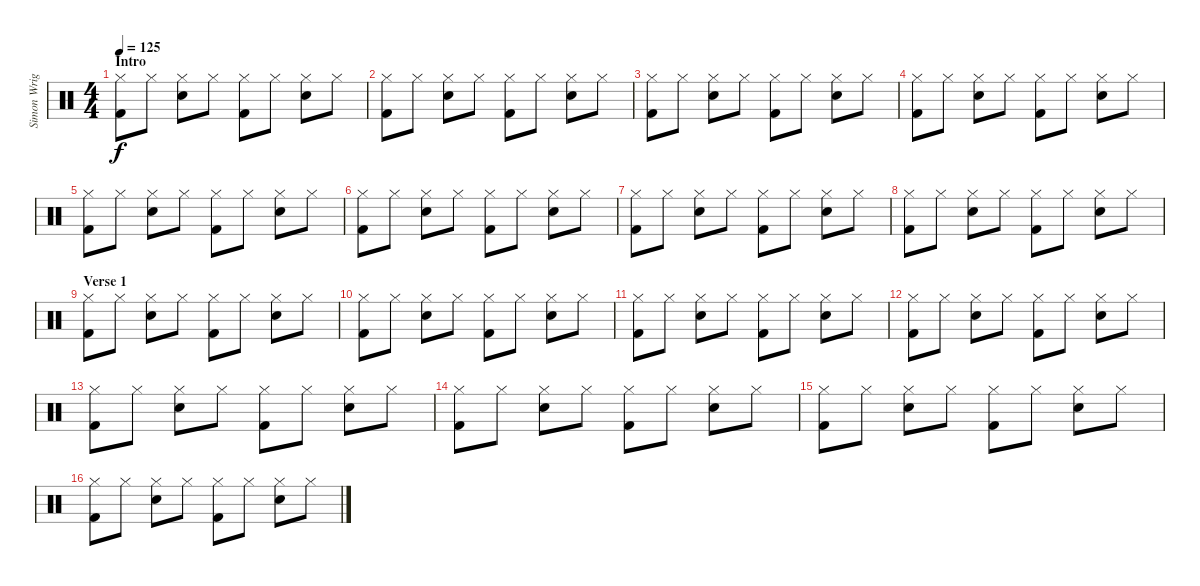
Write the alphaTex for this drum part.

\track ("Simon Wright" "Simon Wrig") {instrument percussion}
\staff {score}
\articulation defaults
\ts (4 4)
\section ("" "Intro")
\tempo 125
\clef neutral
\ks c
("Kick (hit) 2" "Hi-Hat (closed)").8{dy f} "Hi-Hat (closed)".8 ("Snare (hit) 2" "Hi-Hat (closed)").8 "Hi-Hat (closed)".8 ("Kick (hit) 2" "Hi-Hat (closed)").8 "Hi-Hat (closed)".8 ("Snare (hit) 2" "Hi-Hat (closed)").8 "Hi-Hat (closed)".8 |
("Kick (hit) 2" "Hi-Hat (closed)").8 "Hi-Hat (closed)".8 ("Snare (hit) 2" "Hi-Hat (closed)").8 "Hi-Hat (closed)".8 ("Kick (hit) 2" "Hi-Hat (closed)").8 "Hi-Hat (closed)".8 ("Snare (hit) 2" "Hi-Hat (closed)").8 "Hi-Hat (closed)".8 |
("Kick (hit) 2" "Hi-Hat (closed)").8 "Hi-Hat (closed)".8 ("Snare (hit) 2" "Hi-Hat (closed)").8 "Hi-Hat (closed)".8 ("Kick (hit) 2" "Hi-Hat (closed)").8 "Hi-Hat (closed)".8 ("Snare (hit) 2" "Hi-Hat (closed)").8 "Hi-Hat (closed)".8 |
("Kick (hit) 2" "Hi-Hat (closed)").8 "Hi-Hat (closed)".8 ("Snare (hit) 2" "Hi-Hat (closed)").8 "Hi-Hat (closed)".8 ("Kick (hit) 2" "Hi-Hat (closed)").8 "Hi-Hat (closed)".8 ("Snare (hit) 2" "Hi-Hat (closed)").8 "Hi-Hat (closed)".8 |
("Kick (hit) 2" "Hi-Hat (closed)").8 "Hi-Hat (closed)".8 ("Snare (hit) 2" "Hi-Hat (closed)").8 "Hi-Hat (closed)".8 ("Kick (hit) 2" "Hi-Hat (closed)").8 "Hi-Hat (closed)".8 ("Snare (hit) 2" "Hi-Hat (closed)").8 "Hi-Hat (closed)".8 |
("Kick (hit) 2" "Hi-Hat (closed)").8 "Hi-Hat (closed)".8 ("Snare (hit) 2" "Hi-Hat (closed)").8 "Hi-Hat (closed)".8 ("Kick (hit) 2" "Hi-Hat (closed)").8 "Hi-Hat (closed)".8 ("Snare (hit) 2" "Hi-Hat (closed)").8 "Hi-Hat (closed)".8 |
("Kick (hit) 2" "Hi-Hat (closed)").8 "Hi-Hat (closed)".8 ("Snare (hit) 2" "Hi-Hat (closed)").8 "Hi-Hat (closed)".8 ("Kick (hit) 2" "Hi-Hat (closed)").8 "Hi-Hat (closed)".8 ("Snare (hit) 2" "Hi-Hat (closed)").8 "Hi-Hat (closed)".8 |
("Kick (hit) 2" "Hi-Hat (closed)").8 "Hi-Hat (closed)".8 ("Snare (hit) 2" "Hi-Hat (closed)").8 "Hi-Hat (closed)".8 ("Kick (hit) 2" "Hi-Hat (closed)").8 "Hi-Hat (closed)".8 ("Snare (hit) 2" "Hi-Hat (closed)").8 "Hi-Hat (closed)".8 |
\section ("" "Verse 1")
("Kick (hit) 2" "Hi-Hat (closed)").8 "Hi-Hat (closed)".8 ("Snare (hit) 2" "Hi-Hat (closed)").8 "Hi-Hat (closed)".8 ("Kick (hit) 2" "Hi-Hat (closed)").8 "Hi-Hat (closed)".8 ("Snare (hit) 2" "Hi-Hat (closed)").8 "Hi-Hat (closed)".8 |
("Kick (hit) 2" "Hi-Hat (closed)").8 "Hi-Hat (closed)".8 ("Snare (hit) 2" "Hi-Hat (closed)").8 "Hi-Hat (closed)".8 ("Kick (hit) 2" "Hi-Hat (closed)").8 "Hi-Hat (closed)".8 ("Snare (hit) 2" "Hi-Hat (closed)").8 "Hi-Hat (closed)".8 |
("Kick (hit) 2" "Hi-Hat (closed)").8 "Hi-Hat (closed)".8 ("Snare (hit) 2" "Hi-Hat (closed)").8 "Hi-Hat (closed)".8 ("Kick (hit) 2" "Hi-Hat (closed)").8 "Hi-Hat (closed)".8 ("Snare (hit) 2" "Hi-Hat (closed)").8 "Hi-Hat (closed)".8 |
("Kick (hit) 2" "Hi-Hat (closed)").8 "Hi-Hat (closed)".8 ("Snare (hit) 2" "Hi-Hat (closed)").8 "Hi-Hat (closed)".8 ("Kick (hit) 2" "Hi-Hat (closed)").8 "Hi-Hat (closed)".8 ("Snare (hit) 2" "Hi-Hat (closed)").8 "Hi-Hat (closed)".8 |
("Kick (hit) 2" "Hi-Hat (closed)").8 "Hi-Hat (closed)".8 ("Snare (hit) 2" "Hi-Hat (closed)").8 "Hi-Hat (closed)".8 ("Kick (hit) 2" "Hi-Hat (closed)").8 "Hi-Hat (closed)".8 ("Snare (hit) 2" "Hi-Hat (closed)").8 "Hi-Hat (closed)".8 |
("Kick (hit) 2" "Hi-Hat (closed)").8 "Hi-Hat (closed)".8 ("Snare (hit) 2" "Hi-Hat (closed)").8 "Hi-Hat (closed)".8 ("Kick (hit) 2" "Hi-Hat (closed)").8 "Hi-Hat (closed)".8 ("Snare (hit) 2" "Hi-Hat (closed)").8 "Hi-Hat (closed)".8 |
("Kick (hit) 2" "Hi-Hat (closed)").8 "Hi-Hat (closed)".8 ("Snare (hit) 2" "Hi-Hat (closed)").8 "Hi-Hat (closed)".8 ("Kick (hit) 2" "Hi-Hat (closed)").8 "Hi-Hat (closed)".8 ("Snare (hit) 2" "Hi-Hat (closed)").8 "Hi-Hat (closed)".8 |
("Kick (hit) 2" "Hi-Hat (closed)").8 "Hi-Hat (closed)".8 ("Snare (hit) 2" "Hi-Hat (closed)").8 "Hi-Hat (closed)".8 ("Kick (hit) 2" "Hi-Hat (closed)").8 "Hi-Hat (closed)".8 ("Snare (hit) 2" "Hi-Hat (closed)").8 "Hi-Hat (closed)".8
